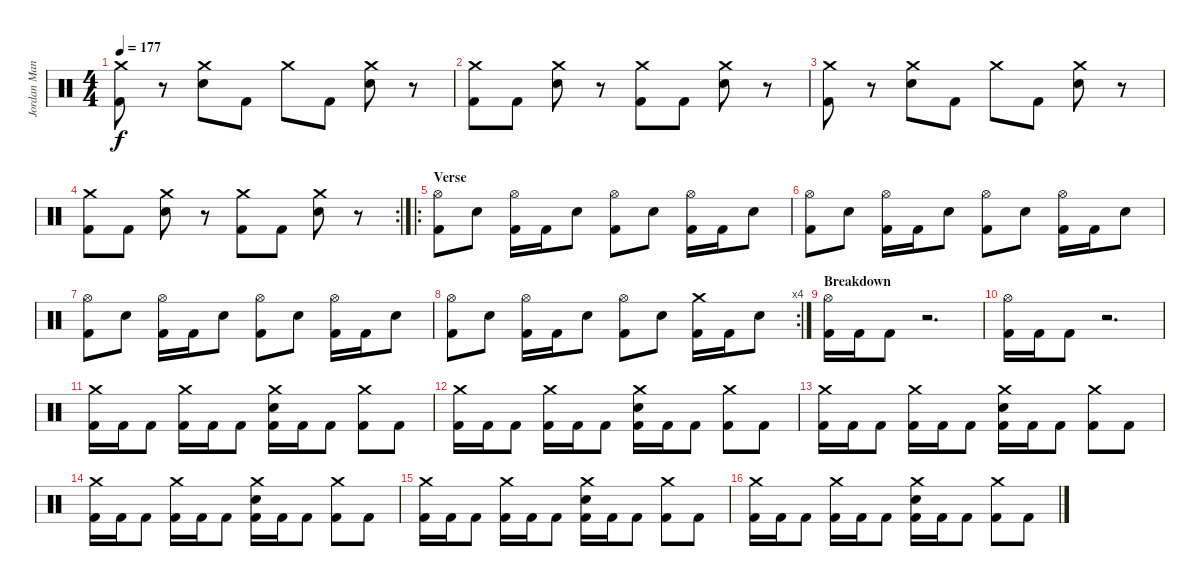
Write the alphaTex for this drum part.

\track ("Jordan Mancino" "Jordan Man") {instrument percussion}
\staff {score}
\articulation defaults
\ts (4 4)
\tempo 177
\clef neutral
\ks c
("Crash medium (hit)" "Kick (hit) 2").8{dy f} r.8 ("Crash medium (hit)" "Electric Snare (hit)").8 "Kick (hit) 2".8 "Crash medium (hit)".8 "Kick (hit) 2".8 ("Crash medium (hit)" "Electric Snare (hit)").8 r.8 |
("Crash medium (hit)" "Kick (hit) 2").8 "Kick (hit) 2".8 ("Crash medium (hit)" "Electric Snare (hit)").8 r.8 ("Crash medium (hit)" "Kick (hit) 2").8 "Kick (hit) 2".8 ("Crash medium (hit)" "Electric Snare (hit)").8 r.8 |
("Crash medium (hit)" "Kick (hit) 2").8 r.8 ("Crash medium (hit)" "Electric Snare (hit)").8 "Kick (hit) 2".8 "Crash medium (hit)".8 "Kick (hit) 2".8 ("Crash medium (hit)" "Electric Snare (hit)").8 r.8 |
\rc 2
("Crash medium (hit)" "Kick (hit) 2").8 "Kick (hit) 2".8 ("Crash medium (hit)" "Electric Snare (hit)").8 r.8 ("Crash medium (hit)" "Kick (hit) 2").8 "Kick (hit) 2".8 ("Crash medium (hit)" "Electric Snare (hit)").8 r.8 |
\ro
\section ("" "Verse")
("Hi-Hat (open)" "Kick (hit) 2").8 "Electric Snare (hit)".8 ("Hi-Hat (open)" "Kick (hit) 2").16 "Kick (hit) 2".16 "Electric Snare (hit)".8 ("Hi-Hat (open)" "Kick (hit) 2").8 "Electric Snare (hit)".8 ("Hi-Hat (open)" "Kick (hit) 2").16 "Kick (hit) 2".16 "Electric Snare (hit)".8 |
("Hi-Hat (open)" "Kick (hit) 2").8 "Electric Snare (hit)".8 ("Hi-Hat (open)" "Kick (hit) 2").16 "Kick (hit) 2".16 "Electric Snare (hit)".8 ("Hi-Hat (open)" "Kick (hit) 2").8 "Electric Snare (hit)".8 ("Hi-Hat (open)" "Kick (hit) 2").16 "Kick (hit) 2".16 "Electric Snare (hit)".8 |
("Hi-Hat (open)" "Kick (hit) 2").8 "Electric Snare (hit)".8 ("Hi-Hat (open)" "Kick (hit) 2").16 "Kick (hit) 2".16 "Electric Snare (hit)".8 ("Hi-Hat (open)" "Kick (hit) 2").8 "Electric Snare (hit)".8 ("Hi-Hat (open)" "Kick (hit) 2").16 "Kick (hit) 2".16 "Electric Snare (hit)".8 |
\rc 4
("Hi-Hat (open)" "Kick (hit) 2").8 "Electric Snare (hit)".8 ("Hi-Hat (open)" "Kick (hit) 2").16 "Kick (hit) 2".16 "Electric Snare (hit)".8 ("Hi-Hat (open)" "Kick (hit) 2").8 "Electric Snare (hit)".8 ("Crash medium (hit)" "Kick (hit) 2").16 "Kick (hit) 2".16 "Electric Snare (hit)".8 |
\section ("" "Breakdown")
("Hi-Hat (open)" "Kick (hit) 2").16 "Kick (hit) 2".16 "Kick (hit) 2".8 r.2{d} |
("Hi-Hat (open)" "Kick (hit) 2").16 "Kick (hit) 2".16 "Kick (hit) 2".8 r.2{d} |
("Crash medium (hit)" "Kick (hit) 2").16 "Kick (hit) 2".16 "Kick (hit) 2".8 ("Crash medium (hit)" "Kick (hit) 2").16 "Kick (hit) 2".16 "Kick (hit) 2".8 ("Crash medium (hit)" "Electric Snare (hit)" "Kick (hit) 2").16 "Kick (hit) 2".16 "Kick (hit) 2".8 ("Crash medium (hit)" "Kick (hit) 2").8 "Kick (hit) 2".8 |
("Crash medium (hit)" "Kick (hit) 2").16 "Kick (hit) 2".16 "Kick (hit) 2".8 ("Crash medium (hit)" "Kick (hit) 2").16 "Kick (hit) 2".16 "Kick (hit) 2".8 ("Crash medium (hit)" "Electric Snare (hit)" "Kick (hit) 2").16 "Kick (hit) 2".16 "Kick (hit) 2".8 ("Crash medium (hit)" "Kick (hit) 2").8 "Kick (hit) 2".8 |
("Crash medium (hit)" "Kick (hit) 2").16 "Kick (hit) 2".16 "Kick (hit) 2".8 ("Crash medium (hit)" "Kick (hit) 2").16 "Kick (hit) 2".16 "Kick (hit) 2".8 ("Crash medium (hit)" "Electric Snare (hit)" "Kick (hit) 2").16 "Kick (hit) 2".16 "Kick (hit) 2".8 ("Crash medium (hit)" "Kick (hit) 2").8 "Kick (hit) 2".8 |
("Crash medium (hit)" "Kick (hit) 2").16 "Kick (hit) 2".16 "Kick (hit) 2".8 ("Crash medium (hit)" "Kick (hit) 2").16 "Kick (hit) 2".16 "Kick (hit) 2".8 ("Crash medium (hit)" "Electric Snare (hit)" "Kick (hit) 2").16 "Kick (hit) 2".16 "Kick (hit) 2".8 ("Crash medium (hit)" "Kick (hit) 2").8 "Kick (hit) 2".8 |
("Crash medium (hit)" "Kick (hit) 2").16 "Kick (hit) 2".16 "Kick (hit) 2".8 ("Crash medium (hit)" "Kick (hit) 2").16 "Kick (hit) 2".16 "Kick (hit) 2".8 ("Crash medium (hit)" "Electric Snare (hit)" "Kick (hit) 2").16 "Kick (hit) 2".16 "Kick (hit) 2".8 ("Crash medium (hit)" "Kick (hit) 2").8 "Kick (hit) 2".8 |
("Crash medium (hit)" "Kick (hit) 2").16 "Kick (hit) 2".16 "Kick (hit) 2".8 ("Crash medium (hit)" "Kick (hit) 2").16 "Kick (hit) 2".16 "Kick (hit) 2".8 ("Crash medium (hit)" "Electric Snare (hit)" "Kick (hit) 2").16 "Kick (hit) 2".16 "Kick (hit) 2".8 ("Crash medium (hit)" "Kick (hit) 2").8 "Kick (hit) 2".8
